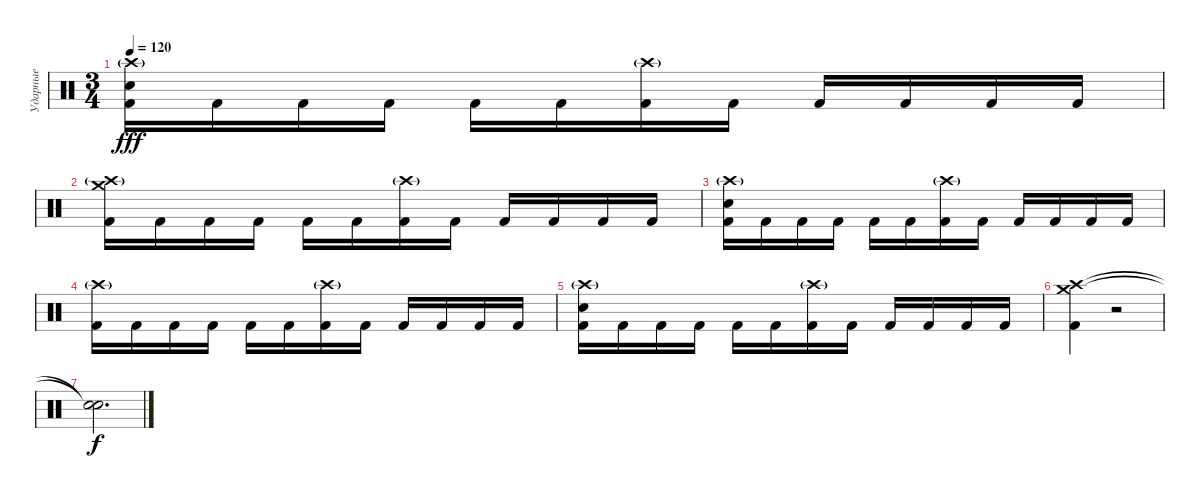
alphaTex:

\track ("Ударные" "Ударные") {instrument percussion}
\staff {score}
\articulation defaults
\ts (3 4)
\tempo 120
\clef neutral
\ks c
("Crash high (hit)"{g} "Electric Snare (hit)" "Kick (hit) 2").16{dy fff} "Kick (hit) 2".16 "Kick (hit) 2".16 "Kick (hit) 2".16 "Kick (hit) 2".16 "Kick (hit) 2".16 ("Crash high (hit)"{g} "Kick (hit) 2").16 "Kick (hit) 2".16 "Kick (hit) 2".16 "Kick (hit) 2".16 "Kick (hit) 2".16 "Kick (hit) 2".16 |
("Crash high (hit)"{g} "Crash medium (hit)" "Kick (hit) 2").16 "Kick (hit) 2".16 "Kick (hit) 2".16 "Kick (hit) 2".16 "Kick (hit) 2".16 "Kick (hit) 2".16 ("Crash high (hit)"{g} "Kick (hit) 2").16 "Kick (hit) 2".16 "Kick (hit) 2".16 "Kick (hit) 2".16 "Kick (hit) 2".16 "Kick (hit) 2".16 |
("Crash high (hit)"{g} "Electric Snare (hit)" "Kick (hit) 2").16 "Kick (hit) 2".16 "Kick (hit) 2".16 "Kick (hit) 2".16 "Kick (hit) 2".16 "Kick (hit) 2".16 ("Crash high (hit)"{g} "Kick (hit) 2").16 "Kick (hit) 2".16 "Kick (hit) 2".16 "Kick (hit) 2".16 "Kick (hit) 2".16 "Kick (hit) 2".16 |
("Crash high (hit)"{g} "Kick (hit) 2").16 "Kick (hit) 2".16 "Kick (hit) 2".16 "Kick (hit) 2".16 "Kick (hit) 2".16 "Kick (hit) 2".16 ("Crash high (hit)"{g} "Kick (hit) 2").16 "Kick (hit) 2".16 "Kick (hit) 2".16 "Kick (hit) 2".16 "Kick (hit) 2".16 "Kick (hit) 2".16 |
("Crash high (hit)"{g} "Electric Snare (hit)" "Kick (hit) 2").16 "Kick (hit) 2".16 "Kick (hit) 2".16 "Kick (hit) 2".16 "Kick (hit) 2".16 "Kick (hit) 2".16 ("Crash high (hit)"{g} "Kick (hit) 2").16 "Kick (hit) 2".16 "Kick (hit) 2".16 "Kick (hit) 2".16 "Kick (hit) 2".16 "Kick (hit) 2".16 |
("Crash high (hit)" "Crash medium (hit)" "Kick (hit) 2").4 r.2 |
("Snare (hit)"{t} "Snare (hit)"{t}).2{d dy f}
